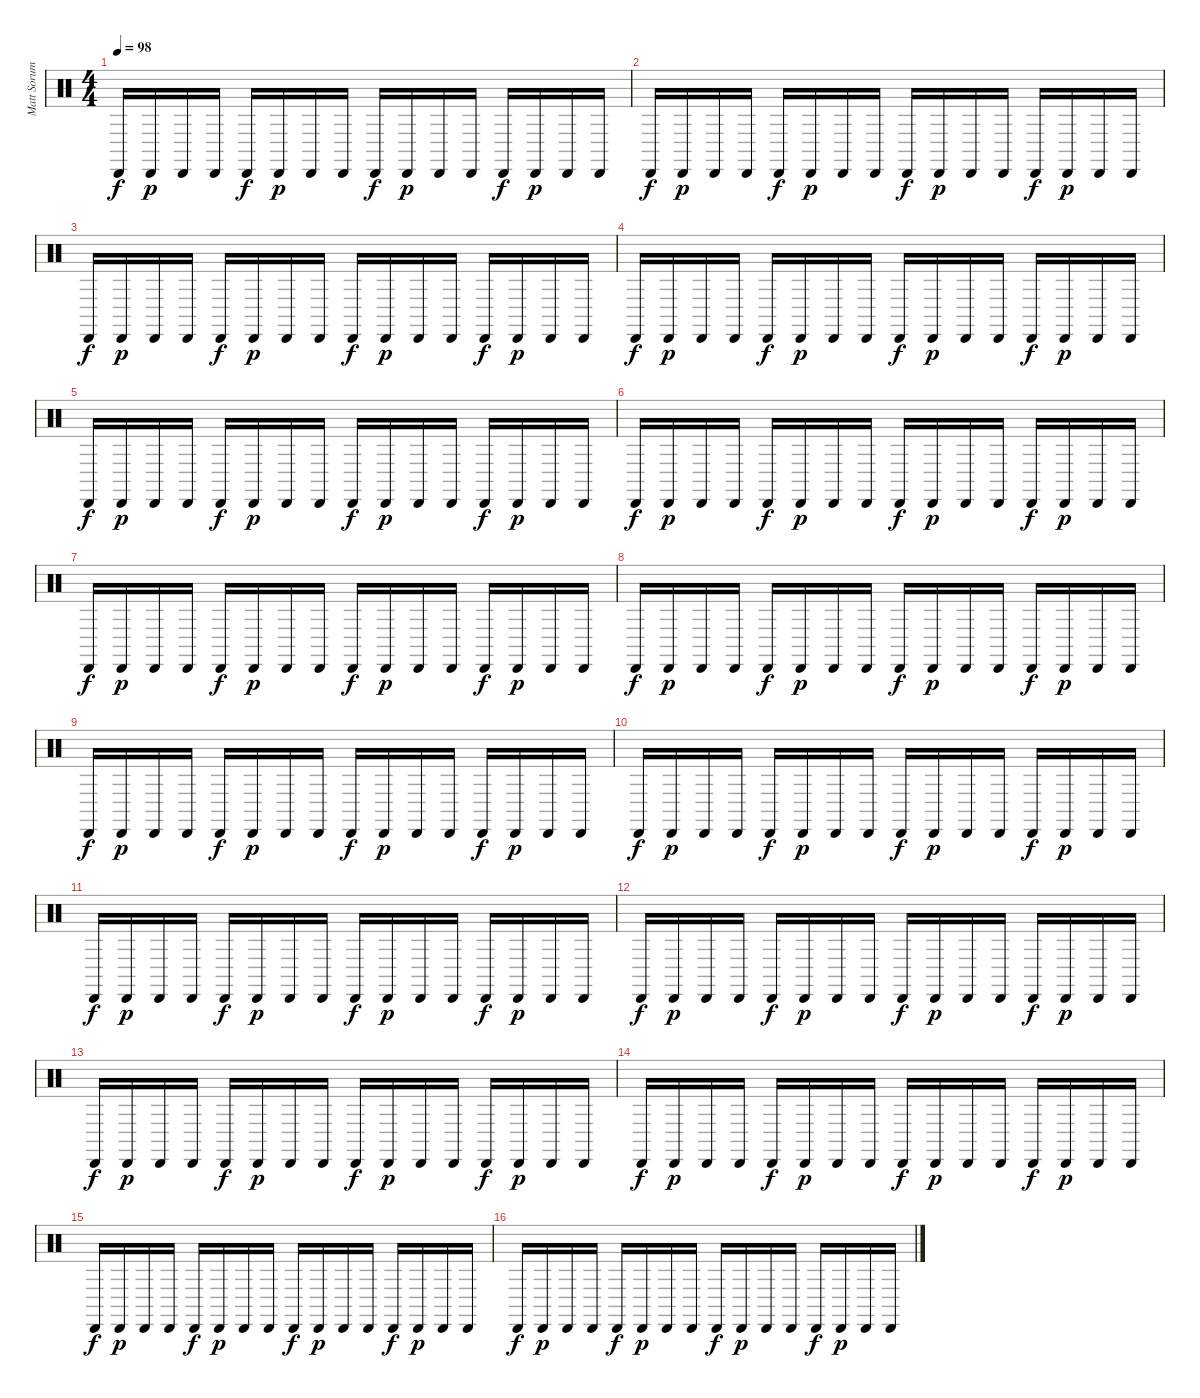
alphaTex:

\track ("Matt Sorum" "Matt Sorum") {instrument percussion}
\staff {score}
\articulation defaults
\ts (4 4)
\tempo 98
\clef neutral
\ks c "Cabasa (hit)".16{dy f volume 6} "Cabasa (hit)".16{dy p} "Cabasa (hit)".16 "Cabasa (hit)".16 "Cabasa (hit)".16{dy f} "Cabasa (hit)".16{dy p} "Cabasa (hit)".16 "Cabasa (hit)".16 "Cabasa (hit)".16{dy f} "Cabasa (hit)".16{dy p} "Cabasa (hit)".16 "Cabasa (hit)".16 "Cabasa (hit)".16{dy f} "Cabasa (hit)".16{dy p} "Cabasa (hit)".16 "Cabasa (hit)".16
|
"Cabasa (hit)".16{dy f} "Cabasa (hit)".16{dy p} "Cabasa (hit)".16 "Cabasa (hit)".16 "Cabasa (hit)".16{dy f} "Cabasa (hit)".16{dy p} "Cabasa (hit)".16 "Cabasa (hit)".16 "Cabasa (hit)".16{dy f} "Cabasa (hit)".16{dy p} "Cabasa (hit)".16 "Cabasa (hit)".16 "Cabasa (hit)".16{dy f} "Cabasa (hit)".16{dy p} "Cabasa (hit)".16 "Cabasa (hit)".16 |
"Cabasa (hit)".16{dy f} "Cabasa (hit)".16{dy p} "Cabasa (hit)".16 "Cabasa (hit)".16 "Cabasa (hit)".16{dy f} "Cabasa (hit)".16{dy p} "Cabasa (hit)".16 "Cabasa (hit)".16 "Cabasa (hit)".16{dy f} "Cabasa (hit)".16{dy p} "Cabasa (hit)".16 "Cabasa (hit)".16 "Cabasa (hit)".16{dy f} "Cabasa (hit)".16{dy p} "Cabasa (hit)".16 "Cabasa (hit)".16 |
"Cabasa (hit)".16{dy f} "Cabasa (hit)".16{dy p} "Cabasa (hit)".16 "Cabasa (hit)".16 "Cabasa (hit)".16{dy f} "Cabasa (hit)".16{dy p} "Cabasa (hit)".16 "Cabasa (hit)".16 "Cabasa (hit)".16{dy f} "Cabasa (hit)".16{dy p} "Cabasa (hit)".16 "Cabasa (hit)".16 "Cabasa (hit)".16{dy f} "Cabasa (hit)".16{dy p} "Cabasa (hit)".16 "Cabasa (hit)".16 |
"Cabasa (hit)".16{dy f} "Cabasa (hit)".16{dy p} "Cabasa (hit)".16 "Cabasa (hit)".16 "Cabasa (hit)".16{dy f} "Cabasa (hit)".16{dy p} "Cabasa (hit)".16 "Cabasa (hit)".16 "Cabasa (hit)".16{dy f} "Cabasa (hit)".16{dy p} "Cabasa (hit)".16 "Cabasa (hit)".16 "Cabasa (hit)".16{dy f} "Cabasa (hit)".16{dy p} "Cabasa (hit)".16 "Cabasa (hit)".16 |
"Cabasa (hit)".16{dy f} "Cabasa (hit)".16{dy p} "Cabasa (hit)".16 "Cabasa (hit)".16 "Cabasa (hit)".16{dy f} "Cabasa (hit)".16{dy p} "Cabasa (hit)".16 "Cabasa (hit)".16 "Cabasa (hit)".16{dy f} "Cabasa (hit)".16{dy p} "Cabasa (hit)".16 "Cabasa (hit)".16 "Cabasa (hit)".16{dy f} "Cabasa (hit)".16{dy p} "Cabasa (hit)".16 "Cabasa (hit)".16 |
"Cabasa (hit)".16{dy f} "Cabasa (hit)".16{dy p} "Cabasa (hit)".16 "Cabasa (hit)".16 "Cabasa (hit)".16{dy f} "Cabasa (hit)".16{dy p} "Cabasa (hit)".16 "Cabasa (hit)".16 "Cabasa (hit)".16{dy f} "Cabasa (hit)".16{dy p} "Cabasa (hit)".16 "Cabasa (hit)".16 "Cabasa (hit)".16{dy f} "Cabasa (hit)".16{dy p} "Cabasa (hit)".16 "Cabasa (hit)".16 |
"Cabasa (hit)".16{dy f volume 6} "Cabasa (hit)".16{dy p} "Cabasa (hit)".16 "Cabasa (hit)".16 "Cabasa (hit)".16{dy f} "Cabasa (hit)".16{dy p} "Cabasa (hit)".16 "Cabasa (hit)".16 "Cabasa (hit)".16{dy f} "Cabasa (hit)".16{dy p} "Cabasa (hit)".16 "Cabasa (hit)".16 "Cabasa (hit)".16{dy f} "Cabasa (hit)".16{dy p} "Cabasa (hit)".16 "Cabasa (hit)".16 |
"Cabasa (hit)".16{dy f} "Cabasa (hit)".16{dy p} "Cabasa (hit)".16 "Cabasa (hit)".16 "Cabasa (hit)".16{dy f} "Cabasa (hit)".16{dy p} "Cabasa (hit)".16 "Cabasa (hit)".16 "Cabasa (hit)".16{dy f} "Cabasa (hit)".16{dy p} "Cabasa (hit)".16 "Cabasa (hit)".16 "Cabasa (hit)".16{dy f} "Cabasa (hit)".16{dy p} "Cabasa (hit)".16 "Cabasa (hit)".16 |
"Cabasa (hit)".16{dy f} "Cabasa (hit)".16{dy p} "Cabasa (hit)".16 "Cabasa (hit)".16 "Cabasa (hit)".16{dy f} "Cabasa (hit)".16{dy p} "Cabasa (hit)".16 "Cabasa (hit)".16 "Cabasa (hit)".16{dy f} "Cabasa (hit)".16{dy p} "Cabasa (hit)".16 "Cabasa (hit)".16 "Cabasa (hit)".16{dy f} "Cabasa (hit)".16{dy p} "Cabasa (hit)".16 "Cabasa (hit)".16 |
"Cabasa (hit)".16{dy f} "Cabasa (hit)".16{dy p} "Cabasa (hit)".16 "Cabasa (hit)".16 "Cabasa (hit)".16{dy f} "Cabasa (hit)".16{dy p} "Cabasa (hit)".16 "Cabasa (hit)".16 "Cabasa (hit)".16{dy f} "Cabasa (hit)".16{dy p} "Cabasa (hit)".16 "Cabasa (hit)".16 "Cabasa (hit)".16{dy f} "Cabasa (hit)".16{dy p} "Cabasa (hit)".16 "Cabasa (hit)".16 |
"Cabasa (hit)".16{dy f} "Cabasa (hit)".16{dy p} "Cabasa (hit)".16 "Cabasa (hit)".16 "Cabasa (hit)".16{dy f} "Cabasa (hit)".16{dy p} "Cabasa (hit)".16 "Cabasa (hit)".16 "Cabasa (hit)".16{dy f} "Cabasa (hit)".16{dy p} "Cabasa (hit)".16 "Cabasa (hit)".16 "Cabasa (hit)".16{dy f} "Cabasa (hit)".16{dy p} "Cabasa (hit)".16 "Cabasa (hit)".16 |
"Cabasa (hit)".16{dy f} "Cabasa (hit)".16{dy p} "Cabasa (hit)".16 "Cabasa (hit)".16 "Cabasa (hit)".16{dy f} "Cabasa (hit)".16{dy p} "Cabasa (hit)".16 "Cabasa (hit)".16 "Cabasa (hit)".16{dy f} "Cabasa (hit)".16{dy p} "Cabasa (hit)".16 "Cabasa (hit)".16 "Cabasa (hit)".16{dy f} "Cabasa (hit)".16{dy p} "Cabasa (hit)".16 "Cabasa (hit)".16 |
"Cabasa (hit)".16{dy f} "Cabasa (hit)".16{dy p} "Cabasa (hit)".16 "Cabasa (hit)".16 "Cabasa (hit)".16{dy f} "Cabasa (hit)".16{dy p} "Cabasa (hit)".16 "Cabasa (hit)".16 "Cabasa (hit)".16{dy f} "Cabasa (hit)".16{dy p} "Cabasa (hit)".16 "Cabasa (hit)".16 "Cabasa (hit)".16{dy f} "Cabasa (hit)".16{dy p} "Cabasa (hit)".16 "Cabasa (hit)".16 |
"Cabasa (hit)".16{dy f} "Cabasa (hit)".16{dy p} "Cabasa (hit)".16 "Cabasa (hit)".16 "Cabasa (hit)".16{dy f} "Cabasa (hit)".16{dy p} "Cabasa (hit)".16 "Cabasa (hit)".16 "Cabasa (hit)".16{dy f} "Cabasa (hit)".16{dy p} "Cabasa (hit)".16 "Cabasa (hit)".16 "Cabasa (hit)".16{dy f} "Cabasa (hit)".16{dy p} "Cabasa (hit)".16 "Cabasa (hit)".16 |
"Cabasa (hit)".16{dy f} "Cabasa (hit)".16{dy p} "Cabasa (hit)".16 "Cabasa (hit)".16 "Cabasa (hit)".16{dy f} "Cabasa (hit)".16{dy p} "Cabasa (hit)".16 "Cabasa (hit)".16 "Cabasa (hit)".16{dy f} "Cabasa (hit)".16{dy p} "Cabasa (hit)".16 "Cabasa (hit)".16 "Cabasa (hit)".16{dy f} "Cabasa (hit)".16{dy p} "Cabasa (hit)".16 "Cabasa (hit)".16
